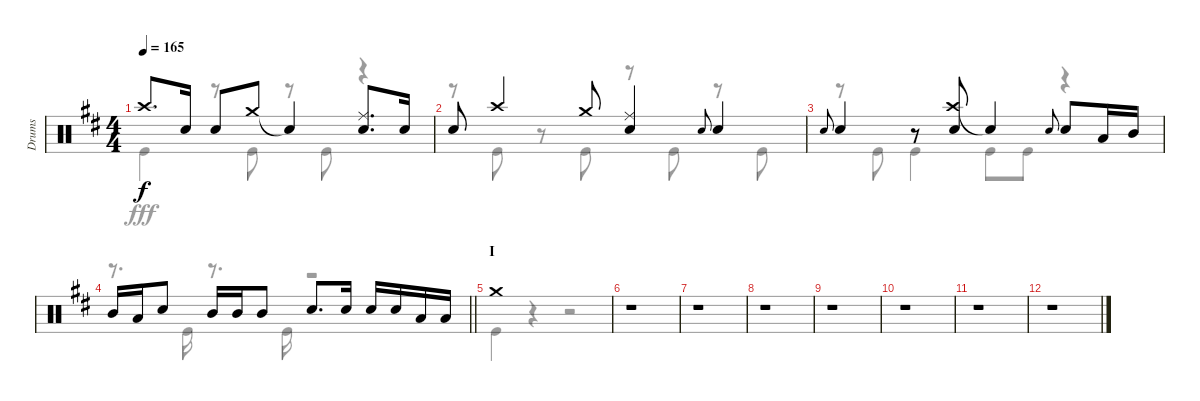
\track ("Drums" "Drums") {instrument percussion}
\staff {score}
\articulation defaults
\voice
\ts (4 4)
\tempo 165
\clef neutral
\ks d "Crash high (hit)".8{d dy f} "Snare (hit) 2".16 "Snare (hit) 2".8 "Crash medium (hit)".8 "Snare (hit)"{t}.4
("Ride (middle)" "Snare (hit) 2").8{d} "Snare (hit) 2".16 |
"Snare (hit) 2".8 "Crash high (hit)".4 "Crash medium (hit)".8 ("Ride (middle)" "Snare (hit) 2").4 "Snare (hit) 2".8{gr onbeat} "Snare (hit) 2".4 |
"Snare (hit) 2".8{gr onbeat} "Snare (hit) 2".4 r.8 ("Crash high (hit)" "Snare (hit) 2").8 "Snare (hit)"{t}.4 "Snare (hit) 2".8{gr onbeat} "Snare (hit) 2".8 "Low Tom (hit)".16 "Mid Tom (hit)".16 |
\barLineRight lightlight "Mid Tom (hit)".16 "Low Tom (hit)".16 "Snare (hit) 2".8 "Mid Tom (hit)".16 "Mid Tom (hit)".16 "Mid Tom (hit)".8 "Snare (hit) 2".8{d} "Snare (hit) 2".16 "Snare (hit) 2".16 "Snare (hit) 2".16 "Low Tom (hit)".16 "Low Tom (hit)".16
|
\section ("" "I")
"Crash medium (hit)".1 |
r.1 |
r.1 |
r.1 |
r.1 |
r.1 |
r.1 |
r.1
\voice
\clef neutral
\ottava regular
\simile none
\ks d "Kick (hit)".4{dy fff}
r.8 "Kick (hit)".8 r.8 "Kick (hit)".8 r.4 |
r.8 "Kick (hit)".8 r.8 "Kick (hit)".8 r.8 "Kick (hit)".8 r.8 "Kick (hit)".8 |
r.8 "Kick (hit)".8 "Kick (hit)".4 "Kick (hit)".8 "Kick (hit)".8 r.4 |
\barLineRight lightlight
r.8{d} "Kick (hit)".16 r.8{d} "Kick (hit)".16 r.2 |
"Kick (hit)".4 r.4 r.2 |
r.1 |
r.1 |
r.1 |
r.1 |
r.1 |
r.1 |
r.1
